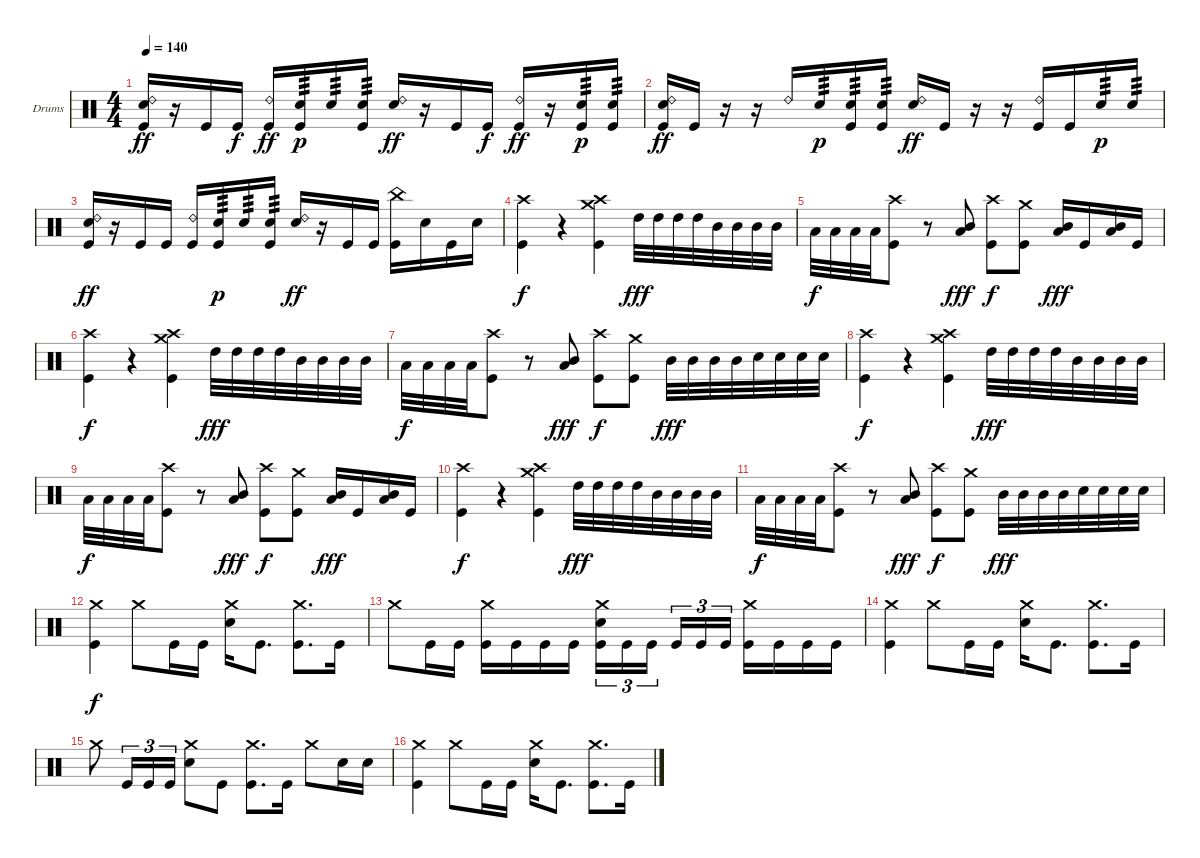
\defaultSystemsLayout 4
\bracketExtendMode groupsimilarinstruments
\firstSystemTrackNameOrientation horizontal
\otherSystemsTrackNameOrientation horizontal
\track ("Drumkit" "Drums") {instrument percussion}
\staff {score}
\articulation defaults
\ts (4 4)
\tempo 140
\clef neutral
\ks c
("Ride (bell) 2" "Snare (hit) 2" "Kick (hit)").16{dy ff} r.16 "Kick (hit)".16 "Kick (hit)".16{dy f} ("Ride (bell) 2" "Kick (hit)").16{dy ff} ("Snare (hit) 2" "Kick (hit)").16{tp 3 dy p} "Snare (hit) 2".16{tp 3} ("Snare (hit) 2" "Kick (hit)").16{tp 3} ("Ride (bell) 2" "Snare (hit) 2").16{dy ff} r.16 "Kick (hit)".16 "Kick (hit)".16{dy f} ("Ride (bell) 2" "Kick (hit)").16{dy ff} r.16 ("Snare (hit) 2" "Kick (hit)").16{tp 3 dy p} ("Snare (hit) 2" "Kick (hit)").16{tp 3} |
("Ride (bell) 2" "Snare (hit) 2" "Kick (hit)").16{dy ff} "Kick (hit)".16 r.16 r.16 "Ride (bell) 2".16 "Snare (hit) 2".16{tp 3 dy p} ("Snare (hit) 2" "Kick (hit)").16{tp 3} ("Snare (hit) 2" "Kick (hit)").16{tp 3} ("Ride (bell) 2" "Snare (hit) 2").16{dy ff} "Kick (hit)".16 r.16 r.16 ("Ride (bell) 2" "Kick (hit)").16 "Kick (hit)".16 "Snare (hit) 2".16{tp 3 dy p} "Snare (hit) 2".16{tp 3} |
("Ride (bell) 2" "Snare (hit) 2" "Kick (hit)").16{dy ff} r.16 "Kick (hit)".16 "Kick (hit)".16 ("Ride (bell) 2" "Kick (hit)").16 ("Snare (hit) 2" "Kick (hit)").16{tp 3 dy p} "Snare (hit) 2".16{tp 3} ("Snare (hit) 2" "Kick (hit)").16{tp 3} ("Ride (bell) 2" "Snare (hit) 2").16{dy ff} r.16 "Kick (hit)".16 "Kick (hit)".16 ("China (hit)" "Kick (hit)").16 "Snare (hit) 2".16 "Kick (hit)".16 "Snare (hit) 2".16 |
("Crash high (hit)" "Kick (hit)").4{dy f} r.4 ("Crash high (hit)" "Crash medium (hit)" "Kick (hit)").4 "High Tom (hit)".32{dy fff} "High Tom (hit)".32 "High Tom (hit)".32 "High Tom (hit)".32 "Mid Tom (hit)".32 "Mid Tom (hit)".32 "Mid Tom (hit)".32 "Mid Tom (hit)".32 |
"Low Tom (hit)".32{dy f} "Low Tom (hit)".32 "Low Tom (hit)".32 "Low Tom (hit)".32 ("Crash high (hit)" "Kick (hit)").8 r.8 ("Mid Tom (hit)" "Low Tom (hit)").8{dy fff} ("Crash high (hit)" "Kick (hit)").8{dy f} ("Crash medium (hit)" "Kick (hit)").8 ("Mid Tom (hit)" "Low Tom (hit)").16{dy fff} "Kick (hit)".16 ("Mid Tom (hit)" "Low Tom (hit)").16 "Kick (hit)".16 |
("Crash high (hit)" "Kick (hit)").4{dy f} r.4 ("Crash high (hit)" "Crash medium (hit)" "Kick (hit)").4 "High Tom (hit)".32{dy fff} "High Tom (hit)".32 "High Tom (hit)".32 "High Tom (hit)".32 "Mid Tom (hit)".32 "Mid Tom (hit)".32 "Mid Tom (hit)".32 "Mid Tom (hit)".32 |
"Low Tom (hit)".32{dy f} "Low Tom (hit)".32 "Low Tom (hit)".32 "Low Tom (hit)".32 ("Crash high (hit)" "Kick (hit)").8 r.8 ("Mid Tom (hit)" "Low Tom (hit)").8{dy fff} ("Crash high (hit)" "Kick (hit)").8{dy f} ("Crash medium (hit)" "Kick (hit)").8 "Mid Tom (hit)".32{dy fff} "Mid Tom (hit)".32 "Mid Tom (hit)".32 "Mid Tom (hit)".32 "Snare (hit) 2".32 "Snare (hit) 2".32 "Snare (hit) 2".32 "Snare (hit) 2".32 |
("Crash high (hit)" "Kick (hit)").4{dy f} r.4 ("Crash high (hit)" "Crash medium (hit)" "Kick (hit)").4 "High Tom (hit)".32{dy fff} "High Tom (hit)".32 "High Tom (hit)".32 "High Tom (hit)".32 "Mid Tom (hit)".32 "Mid Tom (hit)".32 "Mid Tom (hit)".32 "Mid Tom (hit)".32 |
"Low Tom (hit)".32{dy f} "Low Tom (hit)".32 "Low Tom (hit)".32 "Low Tom (hit)".32 ("Crash high (hit)" "Kick (hit)").8 r.8 ("Mid Tom (hit)" "Low Tom (hit)").8{dy fff} ("Crash high (hit)" "Kick (hit)").8{dy f} ("Crash medium (hit)" "Kick (hit)").8 ("Mid Tom (hit)" "Low Tom (hit)").16{dy fff} "Kick (hit)".16 ("Mid Tom (hit)" "Low Tom (hit)").16 "Kick (hit)".16 |
("Crash high (hit)" "Kick (hit)").4{dy f} r.4 ("Crash high (hit)" "Crash medium (hit)" "Kick (hit)").4 "High Tom (hit)".32{dy fff} "High Tom (hit)".32 "High Tom (hit)".32 "High Tom (hit)".32 "Mid Tom (hit)".32 "Mid Tom (hit)".32 "Mid Tom (hit)".32 "Mid Tom (hit)".32 |
"Low Tom (hit)".32{dy f} "Low Tom (hit)".32 "Low Tom (hit)".32 "Low Tom (hit)".32 ("Crash high (hit)" "Kick (hit)").8 r.8 ("Mid Tom (hit)" "Low Tom (hit)").8{dy fff} ("Crash high (hit)" "Kick (hit)").8{dy f} ("Crash medium (hit)" "Kick (hit)").8 "Mid Tom (hit)".32{dy fff} "Mid Tom (hit)".32 "Mid Tom (hit)".32 "Mid Tom (hit)".32 "Snare (hit) 2".32 "Snare (hit) 2".32 "Snare (hit) 2".32 "Snare (hit) 2".32 |
("Crash medium (hit)" "Kick (hit)").4{dy f} "Crash medium (hit)".8 "Kick (hit)".16 "Kick (hit)".16 ("Crash medium (hit)" "Snare (hit) 2").16 "Kick (hit)".8{d} ("Crash medium (hit)" "Kick (hit)").8{d} "Kick (hit)".16 |
"Crash medium (hit)".8 "Kick (hit)".16 "Kick (hit)".16 ("Crash medium (hit)" "Kick (hit)").16 "Kick (hit)".16 "Kick (hit)".16 "Kick (hit)".16 ("Crash medium (hit)" "Snare (hit) 2" "Kick (hit)").16{tu (3 2)} "Kick (hit)".16{tu (3 2)} "Kick (hit)".16{tu (3 2)} "Kick (hit)".16{tu (3 2)} "Kick (hit)".16{tu (3 2)} "Kick (hit)".16{tu (3 2)} ("Crash medium (hit)" "Kick (hit)").16 "Kick (hit)".16 "Kick (hit)".16 "Kick (hit)".16 |
("Crash medium (hit)" "Kick (hit)").4 "Crash medium (hit)".8 "Kick (hit)".16 "Kick (hit)".16 ("Crash medium (hit)" "Snare (hit) 2").16 "Kick (hit)".8{d} ("Crash medium (hit)" "Kick (hit)").8{d} "Kick (hit)".16 |
"Crash medium (hit)".8 "Kick (hit)".16{tu (3 2)} "Kick (hit)".16{tu (3 2)} "Kick (hit)".16{tu (3 2)} ("Crash medium (hit)" "Snare (hit) 2").8 "Kick (hit)".8 ("Crash medium (hit)" "Kick (hit)").8{d} "Kick (hit)".16 "Crash medium (hit)".8 "Snare (hit) 2".16 "Snare (hit) 2".16 |
("Crash medium (hit)" "Kick (hit)").4 "Crash medium (hit)".8 "Kick (hit)".16 "Kick (hit)".16 ("Crash medium (hit)" "Snare (hit) 2").16 "Kick (hit)".8{d} ("Crash medium (hit)" "Kick (hit)").8{d} "Kick (hit)".16
